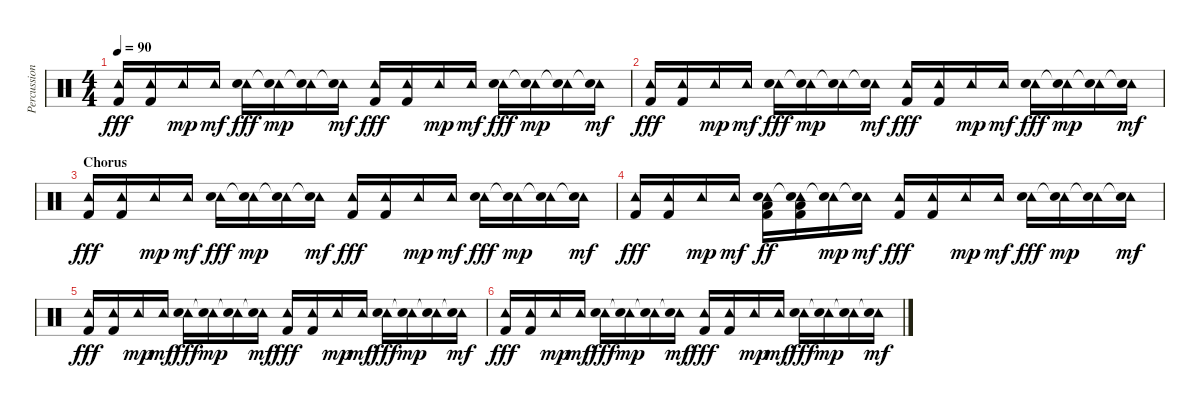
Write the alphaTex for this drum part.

\track ("Percussion" "Percussion") {instrument percussion}
\staff {score}
\articulation defaults
\ts (4 4)
\tempo 90
\clef neutral
\ks c
("Tambourine (hit)" "Kick (hit) 2").16{dy fff} ("Tambourine (hit)" "Kick (hit) 2").16 "Tambourine (hit)".16{dy mp} "Tambourine (hit)".16{dy mf} ("Tambourine (hit)" "Hand Clap (hit)").16{dy fff} ("Tambourine (hit)" "Snare (hit)"{t}).16{dy mp} ("Tambourine (hit)" "Snare (hit)"{t}).16 ("Tambourine (hit)" "Snare (hit)"{t}).16{dy mf} ("Tambourine (hit)" "Kick (hit) 2").16{dy fff} ("Tambourine (hit)" "Kick (hit) 2").16 "Tambourine (hit)".16{dy mp} "Tambourine (hit)".16{dy mf} ("Tambourine (hit)" "Hand Clap (hit)").16{dy fff} ("Tambourine (hit)" "Snare (hit)"{t}).16{dy mp} ("Tambourine (hit)" "Snare (hit)"{t}).16 ("Tambourine (hit)" "Snare (hit)"{t}).16{dy mf} |
("Tambourine (hit)" "Kick (hit) 2").16{dy fff} ("Tambourine (hit)" "Kick (hit) 2").16 "Tambourine (hit)".16{dy mp} "Tambourine (hit)".16{dy mf} ("Tambourine (hit)" "Hand Clap (hit)").16{dy fff} ("Tambourine (hit)" "Snare (hit)"{t}).16{dy mp} ("Tambourine (hit)" "Snare (hit)"{t}).16 ("Tambourine (hit)" "Snare (hit)"{t}).16{dy mf} ("Tambourine (hit)" "Kick (hit) 2").16{dy fff} ("Tambourine (hit)" "Kick (hit) 2").16 "Tambourine (hit)".16{dy mp} "Tambourine (hit)".16{dy mf} ("Tambourine (hit)" "Hand Clap (hit)").16{dy fff} ("Tambourine (hit)" "Snare (hit)"{t}).16{dy mp} ("Tambourine (hit)" "Snare (hit)"{t}).16 ("Tambourine (hit)" "Snare (hit)"{t}).16{dy mf} |
\section ("" "Chorus")
("Tambourine (hit)" "Kick (hit) 2").16{dy fff} ("Tambourine (hit)" "Kick (hit) 2").16 "Tambourine (hit)".16{dy mp} "Tambourine (hit)".16{dy mf} ("Tambourine (hit)" "Hand Clap (hit)").16{dy fff} ("Tambourine (hit)" "Snare (hit)"{t}).16{dy mp} ("Tambourine (hit)" "Snare (hit)"{t}).16 ("Tambourine (hit)" "Snare (hit)"{t}).16{dy mf} ("Tambourine (hit)" "Kick (hit) 2").16{dy fff} ("Tambourine (hit)" "Kick (hit) 2").16 "Tambourine (hit)".16{dy mp} "Tambourine (hit)".16{dy mf} ("Tambourine (hit)" "Hand Clap (hit)").16{dy fff} ("Tambourine (hit)" "Snare (hit)"{t}).16{dy mp} ("Tambourine (hit)" "Snare (hit)"{t}).16 ("Tambourine (hit)" "Snare (hit)"{t}).16{dy mf} |
("Tambourine (hit)" "Kick (hit) 2").16{dy fff} ("Tambourine (hit)" "Kick (hit) 2").16 "Tambourine (hit)".16{dy mp} "Tambourine (hit)".16{dy mf} ("Tambourine (hit)" "Hand Clap (hit)" "Low Floor Tom (hit)" "Kick (hit) 2").16{dy ff} ("Tambourine (hit)" "Snare (hit)"{t} "Low Floor Tom (hit)" "Kick (hit) 2").16 ("Tambourine (hit)" "Snare (hit)"{t}).16{dy mp} ("Tambourine (hit)" "Snare (hit)"{t}).16{dy mf} ("Tambourine (hit)" "Kick (hit) 2").16{dy fff} ("Tambourine (hit)" "Kick (hit) 2").16 "Tambourine (hit)".16{dy mp} "Tambourine (hit)".16{dy mf} ("Tambourine (hit)" "Hand Clap (hit)").16{dy fff} ("Tambourine (hit)" "Snare (hit)"{t}).16{dy mp} ("Tambourine (hit)" "Snare (hit)"{t}).16 ("Tambourine (hit)" "Snare (hit)"{t}).16{dy mf} |
("Tambourine (hit)" "Kick (hit) 2").16{dy fff} ("Tambourine (hit)" "Kick (hit) 2").16 "Tambourine (hit)".16{dy mp} "Tambourine (hit)".16{dy mf} ("Tambourine (hit)" "Hand Clap (hit)").16{dy fff} ("Tambourine (hit)" "Snare (hit)"{t}).16{dy mp} ("Tambourine (hit)" "Snare (hit)"{t}).16 ("Tambourine (hit)" "Snare (hit)"{t}).16{dy mf} ("Tambourine (hit)" "Kick (hit) 2").16{dy fff} ("Tambourine (hit)" "Kick (hit) 2").16 "Tambourine (hit)".16{dy mp} "Tambourine (hit)".16{dy mf} ("Tambourine (hit)" "Hand Clap (hit)").16{dy fff} ("Tambourine (hit)" "Snare (hit)"{t}).16{dy mp} ("Tambourine (hit)" "Snare (hit)"{t}).16 ("Tambourine (hit)" "Snare (hit)"{t}).16{dy mf} |
("Tambourine (hit)" "Kick (hit) 2").16{dy fff} ("Tambourine (hit)" "Kick (hit) 2").16 "Tambourine (hit)".16{dy mp} "Tambourine (hit)".16{dy mf} ("Tambourine (hit)" "Hand Clap (hit)").16{dy fff} ("Tambourine (hit)" "Snare (hit)"{t}).16{dy mp} ("Tambourine (hit)" "Snare (hit)"{t}).16 ("Tambourine (hit)" "Snare (hit)"{t}).16{dy mf} ("Tambourine (hit)" "Kick (hit) 2").16{dy fff} ("Tambourine (hit)" "Kick (hit) 2").16 "Tambourine (hit)".16{dy mp} "Tambourine (hit)".16{dy mf} ("Tambourine (hit)" "Hand Clap (hit)").16{dy fff} ("Tambourine (hit)" "Snare (hit)"{t}).16{dy mp} ("Tambourine (hit)" "Snare (hit)"{t}).16 ("Tambourine (hit)" "Snare (hit)"{t}).16{dy mf}
